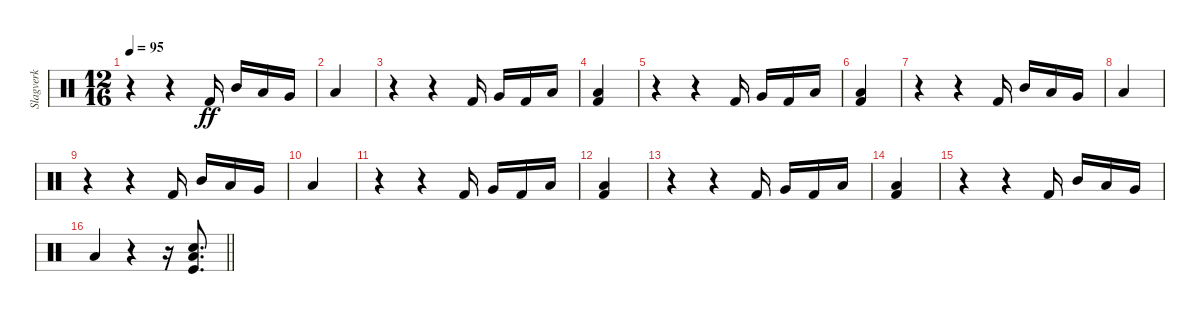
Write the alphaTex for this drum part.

\track ("Slagverk" "Slagverk") {instrument percussion}
\staff {score}
\articulation defaults
\ts (12 16)
\tempo 95
\clef neutral
\ks c
r.4{dy ff} r.4 "Kick (hit) 2".16 "Mid Tom (hit)".16 "Low Tom (hit)".16 "Very Low Tom (hit)".16 |
"Low Floor Tom (hit)".4 |
r.4 r.4 "Kick (hit) 2".16 "Very Low Tom (hit)".16 "Kick (hit) 2".16 "Low Floor Tom (hit)".16 |
("Kick (hit) 2" "Low Floor Tom (hit)").4 |
r.4 r.4 "Kick (hit) 2".16 "Very Low Tom (hit)".16 "Kick (hit) 2".16 "Low Floor Tom (hit)".16 |
("Kick (hit) 2" "Low Floor Tom (hit)").4 |
r.4 r.4 "Kick (hit) 2".16 "Mid Tom (hit)".16 "Low Tom (hit)".16 "Very Low Tom (hit)".16 |
"Low Floor Tom (hit)".4 |
r.4 r.4 "Kick (hit) 2".16 "Mid Tom (hit)".16 "Low Tom (hit)".16 "Very Low Tom (hit)".16 |
"Low Floor Tom (hit)".4 |
r.4 r.4 "Kick (hit) 2".16 "Very Low Tom (hit)".16 "Kick (hit) 2".16 "Low Floor Tom (hit)".16 |
("Kick (hit) 2" "Low Floor Tom (hit)").4 |
r.4 r.4 "Kick (hit) 2".16 "Very Low Tom (hit)".16 "Kick (hit) 2".16 "Low Floor Tom (hit)".16 |
("Kick (hit) 2" "Low Floor Tom (hit)").4 |
r.4 r.4 "Kick (hit) 2".16 "Mid Tom (hit)".16 "Low Tom (hit)".16 "Very Low Tom (hit)".16 |
\barLineRight lightlight "Low Floor Tom (hit)".4
r.4 r.16 ("Low Floor Tom (hit)" "Snare (hit) 2" "Kick (hit)").8{d}
